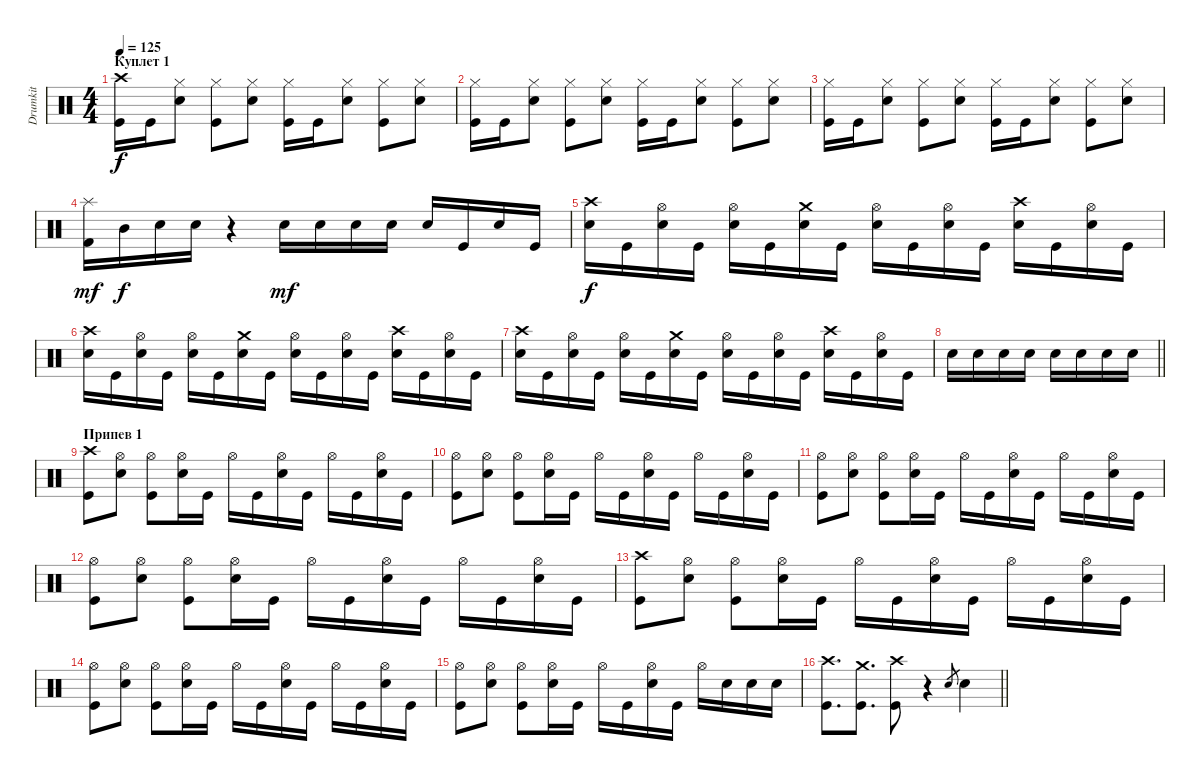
\track ("Drumkit" "Drumkit") {instrument percussion}
\staff {score}
\articulation defaults
\ts (4 4)
\section ("" "Куплет 1")
\tempo 125
\clef neutral
\ks c
("Crash high (hit)" "Kick (hit)").16{dy f} "Kick (hit)".16 ("Hi-Hat (closed)" "Snare (hit) 2").8 ("Hi-Hat (closed)" "Kick (hit)").8 ("Hi-Hat (closed)" "Snare (hit) 2").8 ("Kick (hit)" "Hi-Hat (closed)").16 "Kick (hit)".16 ("Hi-Hat (closed)" "Snare (hit) 2").8 ("Hi-Hat (closed)" "Kick (hit)").8 ("Hi-Hat (closed)" "Snare (hit) 2").8 |
("Kick (hit)" "Hi-Hat (closed)").16 "Kick (hit)".16 ("Hi-Hat (closed)" "Snare (hit) 2").8 ("Hi-Hat (closed)" "Kick (hit)").8 ("Hi-Hat (closed)" "Snare (hit) 2").8 ("Kick (hit)" "Hi-Hat (closed)").16 "Kick (hit)".16 ("Hi-Hat (closed)" "Snare (hit) 2").8 ("Hi-Hat (closed)" "Kick (hit)").8 ("Hi-Hat (closed)" "Snare (hit) 2").8 |
("Kick (hit)" "Hi-Hat (closed)").16 "Kick (hit)".16 ("Hi-Hat (closed)" "Snare (hit) 2").8 ("Hi-Hat (closed)" "Kick (hit)").8 ("Hi-Hat (closed)" "Snare (hit) 2").8 ("Kick (hit)" "Hi-Hat (closed)").16 "Kick (hit)".16 ("Hi-Hat (closed)" "Snare (hit) 2").8 ("Hi-Hat (closed)" "Kick (hit)").8 ("Hi-Hat (closed)" "Snare (hit) 2").8 |
("Splash (hit)" "Kick (hit) 2").16{dy mf} "Mid Tom (hit)".16{dy f} "Snare (hit) 2".16 "Snare (hit) 2".16 r.4 "Snare (hit) 2".16{dy mf} "Snare (hit) 2".16 "Snare (hit) 2".16 "Snare (hit) 2".16 "Snare (hit) 2".16 "Kick (hit)".16 "Snare (hit) 2".16 "Kick (hit)".16 |
("Crash high (hit)" "Snare (hit) 2").16{dy f} "Kick (hit)".16 ("Hi-Hat (open)" "Snare (hit) 2").16 "Kick (hit)".16 ("Hi-Hat (open)" "Snare (hit) 2").16 "Kick (hit)".16 ("Crash medium (hit)" "Snare (hit) 2").16 "Kick (hit)".16 ("Hi-Hat (open)" "Snare (hit) 2").16 "Kick (hit)".16 ("Hi-Hat (open)" "Snare (hit) 2").16 "Kick (hit)".16 ("Crash high (hit)" "Snare (hit) 2").16 "Kick (hit)".16 ("Hi-Hat (open)" "Snare (hit) 2").16 "Kick (hit)".16 |
("Crash high (hit)" "Snare (hit) 2").16 "Kick (hit)".16 ("Hi-Hat (open)" "Snare (hit) 2").16 "Kick (hit)".16 ("Hi-Hat (open)" "Snare (hit) 2").16 "Kick (hit)".16 ("Crash medium (hit)" "Snare (hit) 2").16 "Kick (hit)".16 ("Hi-Hat (open)" "Snare (hit) 2").16 "Kick (hit)".16 ("Hi-Hat (open)" "Snare (hit) 2").16 "Kick (hit)".16 ("Crash high (hit)" "Snare (hit) 2").16 "Kick (hit)".16 ("Hi-Hat (open)" "Snare (hit) 2").16 "Kick (hit)".16 |
("Crash high (hit)" "Snare (hit) 2").16 "Kick (hit)".16 ("Hi-Hat (open)" "Snare (hit) 2").16 "Kick (hit)".16 ("Hi-Hat (open)" "Snare (hit) 2").16 "Kick (hit)".16 ("Crash medium (hit)" "Snare (hit) 2").16 "Kick (hit)".16 ("Hi-Hat (open)" "Snare (hit) 2").16 "Kick (hit)".16 ("Hi-Hat (open)" "Snare (hit) 2").16 "Kick (hit)".16 ("Crash high (hit)" "Snare (hit) 2").16 "Kick (hit)".16 ("Hi-Hat (open)" "Snare (hit) 2").16 "Kick (hit)".16 |
\barLineRight lightlight "Snare (hit) 2".16 "Snare (hit) 2".16 "Snare (hit) 2".16 "Snare (hit) 2".16 "Snare (hit) 2".16 "Snare (hit) 2".16 "Snare (hit) 2".16 "Snare (hit) 2".16
|
\section ("" "Припев 1")
("Crash high (hit)" "Kick (hit)").8 ("Hi-Hat (open)" "Snare (hit) 2").8 ("Kick (hit)" "Hi-Hat (open)").8 ("Hi-Hat (open)" "Snare (hit) 2").16 "Kick (hit)".16 "Hi-Hat (open)".16 "Kick (hit)".16 ("Hi-Hat (open)" "Snare (hit) 2").16 "Kick (hit)".16 "Hi-Hat (open)".16 "Kick (hit)".16 ("Hi-Hat (open)" "Snare (hit) 2").16 "Kick (hit)".16 |
("Hi-Hat (open)" "Kick (hit)").8 ("Hi-Hat (open)" "Snare (hit) 2").8 ("Kick (hit)" "Hi-Hat (open)").8 ("Hi-Hat (open)" "Snare (hit) 2").16 "Kick (hit)".16 "Hi-Hat (open)".16 "Kick (hit)".16 ("Hi-Hat (open)" "Snare (hit) 2").16 "Kick (hit)".16 "Hi-Hat (open)".16 "Kick (hit)".16 ("Hi-Hat (open)" "Snare (hit) 2").16 "Kick (hit)".16 |
("Hi-Hat (open)" "Kick (hit)").8 ("Hi-Hat (open)" "Snare (hit) 2").8 ("Kick (hit)" "Hi-Hat (open)").8 ("Hi-Hat (open)" "Snare (hit) 2").16 "Kick (hit)".16 "Hi-Hat (open)".16 "Kick (hit)".16 ("Hi-Hat (open)" "Snare (hit) 2").16 "Kick (hit)".16 "Hi-Hat (open)".16 "Kick (hit)".16 ("Hi-Hat (open)" "Snare (hit) 2").16 "Kick (hit)".16 |
("Hi-Hat (open)" "Kick (hit)").8 ("Hi-Hat (open)" "Snare (hit) 2").8 ("Kick (hit)" "Hi-Hat (open)").8 ("Hi-Hat (open)" "Snare (hit) 2").16 "Kick (hit)".16 "Hi-Hat (open)".16 "Kick (hit)".16 ("Hi-Hat (open)" "Snare (hit) 2").16 "Kick (hit)".16 "Hi-Hat (open)".16 "Kick (hit)".16 ("Hi-Hat (open)" "Snare (hit) 2").16 "Kick (hit)".16 |
("Crash high (hit)" "Kick (hit)").8 ("Hi-Hat (open)" "Snare (hit) 2").8 ("Kick (hit)" "Hi-Hat (open)").8 ("Hi-Hat (open)" "Snare (hit) 2").16 "Kick (hit)".16 "Hi-Hat (open)".16 "Kick (hit)".16 ("Hi-Hat (open)" "Snare (hit) 2").16 "Kick (hit)".16 "Hi-Hat (open)".16 "Kick (hit)".16 ("Hi-Hat (open)" "Snare (hit) 2").16 "Kick (hit)".16 |
("Hi-Hat (open)" "Kick (hit)").8 ("Hi-Hat (open)" "Snare (hit) 2").8 ("Kick (hit)" "Hi-Hat (open)").8 ("Hi-Hat (open)" "Snare (hit) 2").16 "Kick (hit)".16 "Hi-Hat (open)".16 "Kick (hit)".16 ("Hi-Hat (open)" "Snare (hit) 2").16 "Kick (hit)".16 "Hi-Hat (open)".16 "Kick (hit)".16 ("Hi-Hat (open)" "Snare (hit) 2").16 "Kick (hit)".16 |
("Hi-Hat (open)" "Kick (hit)").8 ("Hi-Hat (open)" "Snare (hit) 2").8 ("Kick (hit)" "Hi-Hat (open)").8 ("Hi-Hat (open)" "Snare (hit) 2").16 "Kick (hit)".16 "Hi-Hat (open)".16 "Kick (hit)".16 ("Hi-Hat (open)" "Snare (hit) 2").16 "Kick (hit)".16 "Hi-Hat (open)".16 "Snare (hit) 2".16 "Snare (hit) 2".16 "Snare (hit) 2".16 |
\barLineRight lightlight
("Crash high (hit)" "Kick (hit)").8{d} ("Crash medium (hit)" "Kick (hit)").8{d} ("Crash high (hit)" "Kick (hit)").8 r.4 "Snare (hit)".8{gr} "Snare (hit) 2".4
